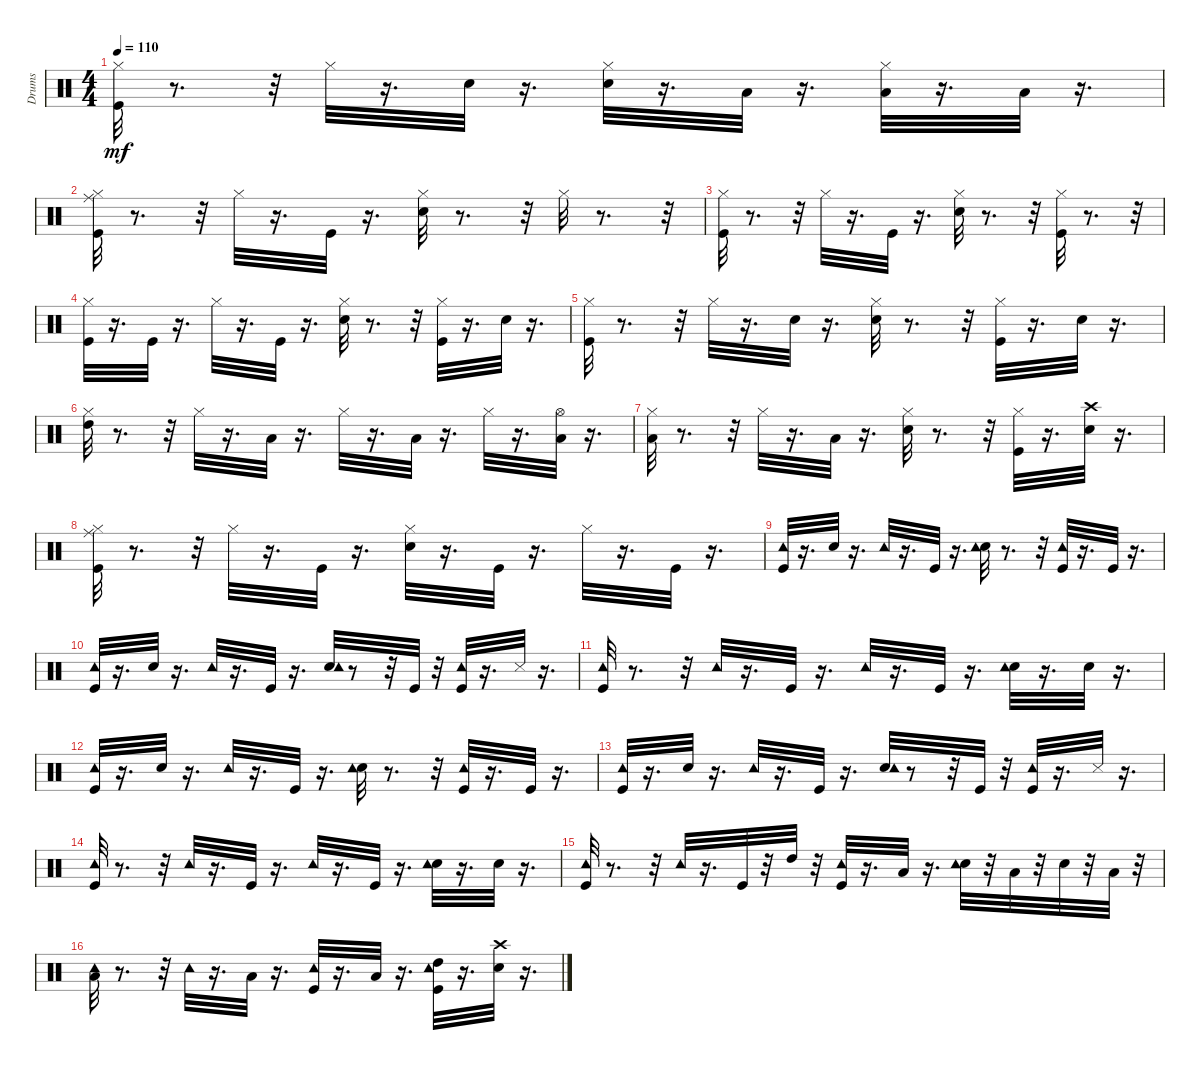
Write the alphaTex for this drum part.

\track ("Drums" "Drums") {instrument percussion}
\staff {score}
\articulation defaults
\ts (4 4)
\tempo 110
\clef neutral
\ks c
("Kick (hit)" "Hi-Hat (closed)").32{dy mf} r.8{d} r.32 "Hi-Hat (closed)".32 r.16{d} "Snare (hit) 2".32 r.16{d} ("Snare (hit) 2" "Hi-Hat (closed)").32 r.16{d} "Low Floor Tom (hit)".32 r.16{d} ("Low Tom (hit)" "Hi-Hat (closed)").32 r.16{d} "Low Floor Tom (hit)".32 r.16{d} |
("Kick (hit)" "Hi-Hat (closed)" "Ride (middle)").32 r.8{d} r.32 "Hi-Hat (closed)".32 r.16{d} "Kick (hit)".32 r.16{d} ("Snare (hit) 2" "Hi-Hat (closed)").32 r.8{d} r.32 "Hi-Hat (closed)".32 r.8{d} r.32 |
("Kick (hit)" "Hi-Hat (closed)").32 r.8{d} r.32 "Hi-Hat (closed)".32 r.16{d} "Kick (hit)".32 r.16{d} ("Snare (hit) 2" "Hi-Hat (closed)").32 r.8{d} r.32 ("Kick (hit)" "Hi-Hat (closed)").32 r.8{d} r.32 |
("Kick (hit)" "Hi-Hat (closed)").32 r.16{d} "Kick (hit)".32 r.16{d} "Hi-Hat (closed)".32 r.16{d} "Kick (hit)".32 r.16{d} ("Snare (hit) 2" "Hi-Hat (closed)").32 r.8{d} r.32 ("Kick (hit)" "Hi-Hat (closed)").32 r.16{d} "Snare (hit) 2".32 r.16{d} |
("Kick (hit)" "Hi-Hat (closed)").32 r.8{d} r.32 "Hi-Hat (closed)".32 r.16{d} "Snare (hit) 2".32 r.16{d} ("Snare (hit) 2" "Hi-Hat (closed)").32 r.8{d} r.32 ("Kick (hit)" "Hi-Hat (closed)").32 r.16{d} "Snare (hit) 2".32 r.16{d} |
("High Tom (hit)" "Hi-Hat (closed)").32 r.8{d} r.32 "Hi-Hat (closed)".32 r.16{d} "Low Tom (hit)".32 r.16{d} "Hi-Hat (closed)".32 r.16{d} "Low Floor Tom (hit)".32 r.16{d} "Hi-Hat (closed)".32 r.16{d} ("Low Floor Tom (hit)" "Hi-Hat (open)").32 r.16{d} |
("Low Floor Tom (hit)" "Hi-Hat (closed)").32 r.8{d} r.32 "Hi-Hat (closed)".32 r.16{d} "Low Floor Tom (hit)".32 r.16{d} ("Snare (hit) 2" "Hi-Hat (closed)").32 r.8{d} r.32 ("Kick (hit)" "Hi-Hat (closed)").32 r.16{d} ("Snare (hit) 2" "Crash high (hit)").32 r.16{d} |
("Kick (hit)" "Hi-Hat (closed)" "Ride (middle)").32 r.8{d} r.32 "Hi-Hat (closed)".32 r.16{d} "Kick (hit)".32 r.16{d} ("Snare (hit) 2" "Hi-Hat (closed)").32 r.16{d} "Kick (hit)".32 r.16{d} "Hi-Hat (closed)".32 r.16{d} "Kick (hit)".32 r.16{d} |
("Kick (hit)" "Tambourine (hit)").32 r.16{d} "Snare (hit) 2".32 r.16{d} "Tambourine (hit)".32 r.16{d} "Kick (hit)".32 r.16{d} ("Snare (hit) 2" "Tambourine (hit)").32 r.8{d} r.32 ("Kick (hit)" "Tambourine (hit)").32 r.16{d} "Kick (hit)".32 r.16{d} |
("Kick (hit)" "Tambourine (hit)").32 r.16{d} "Snare (hit) 2".32 r.16{d} "Tambourine (hit)".32 r.16{d} "Kick (hit)".32 r.16{d} ("Snare (hit) 2" "Tambourine (hit)").32 r.8 r.32 "Kick (hit)".32 r.32 ("Kick (hit)" "Tambourine (hit)").32 r.16{d} "Snare (side stick) 3".32 r.16{d} |
("Kick (hit)" "Tambourine (hit)").32 r.8{d} r.32 "Tambourine (hit)".32 r.16{d} "Kick (hit)".32 r.16{d} "Tambourine (hit)".32 r.16{d} "Kick (hit)".32 r.16{d} ("Snare (hit) 2" "Tambourine (hit)").32 r.16{d} "Snare (hit) 2".32 r.16{d} |
("Kick (hit)" "Tambourine (hit)").32 r.16{d} "Snare (hit) 2".32 r.16{d} "Tambourine (hit)".32 r.16{d} "Kick (hit)".32 r.16{d} ("Snare (hit) 2" "Tambourine (hit)").32 r.8{d} r.32 ("Kick (hit)" "Tambourine (hit)").32 r.16{d} "Kick (hit)".32 r.16{d} |
("Kick (hit)" "Tambourine (hit)").32 r.16{d} "Snare (hit) 2".32 r.16{d} "Tambourine (hit)".32 r.16{d} "Kick (hit)".32 r.16{d} ("Snare (hit) 2" "Tambourine (hit)").32 r.8 r.32 "Kick (hit)".32 r.32 ("Kick (hit)" "Tambourine (hit)").32 r.16{d} "Snare (side stick) 3".32 r.16{d} |
("Kick (hit)" "Tambourine (hit)").32 r.8{d} r.32 "Tambourine (hit)".32 r.16{d} "Kick (hit)".32 r.16{d} "Tambourine (hit)".32 r.16{d} "Kick (hit)".32 r.16{d} ("Snare (hit) 2" "Tambourine (hit)").32 r.16{d} "Snare (hit) 2".32 r.16{d} |
("Kick (hit)" "Tambourine (hit)").32 r.8{d} r.32 "Tambourine (hit)".32 r.16{d} "Kick (hit)".32 r.32 "High Tom (hit)".32 r.32 ("Kick (hit)" "Tambourine (hit)").32 r.16{d} "Low Tom (hit)".32 r.16{d} ("Snare (hit) 2" "Tambourine (hit)").32 r.32 "Low Floor Tom (hit)".32 r.32 "Snare (hit) 2".32 r.32 "Low Floor Tom (hit)".32 r.32 |
("Low Floor Tom (hit)" "Tambourine (hit)").32 r.8{d} r.32 "Tambourine (hit)".32 r.16{d} "Low Floor Tom (hit)".32 r.16{d} ("Kick (hit)" "Tambourine (hit)").32 r.16{d} "Low Floor Tom (hit)".32 r.16{d} ("Kick (hit)" "High Tom (hit)" "Tambourine (hit)").32 r.16{d} ("Snare (hit) 2" "Crash high (hit)").32 r.16{d}
